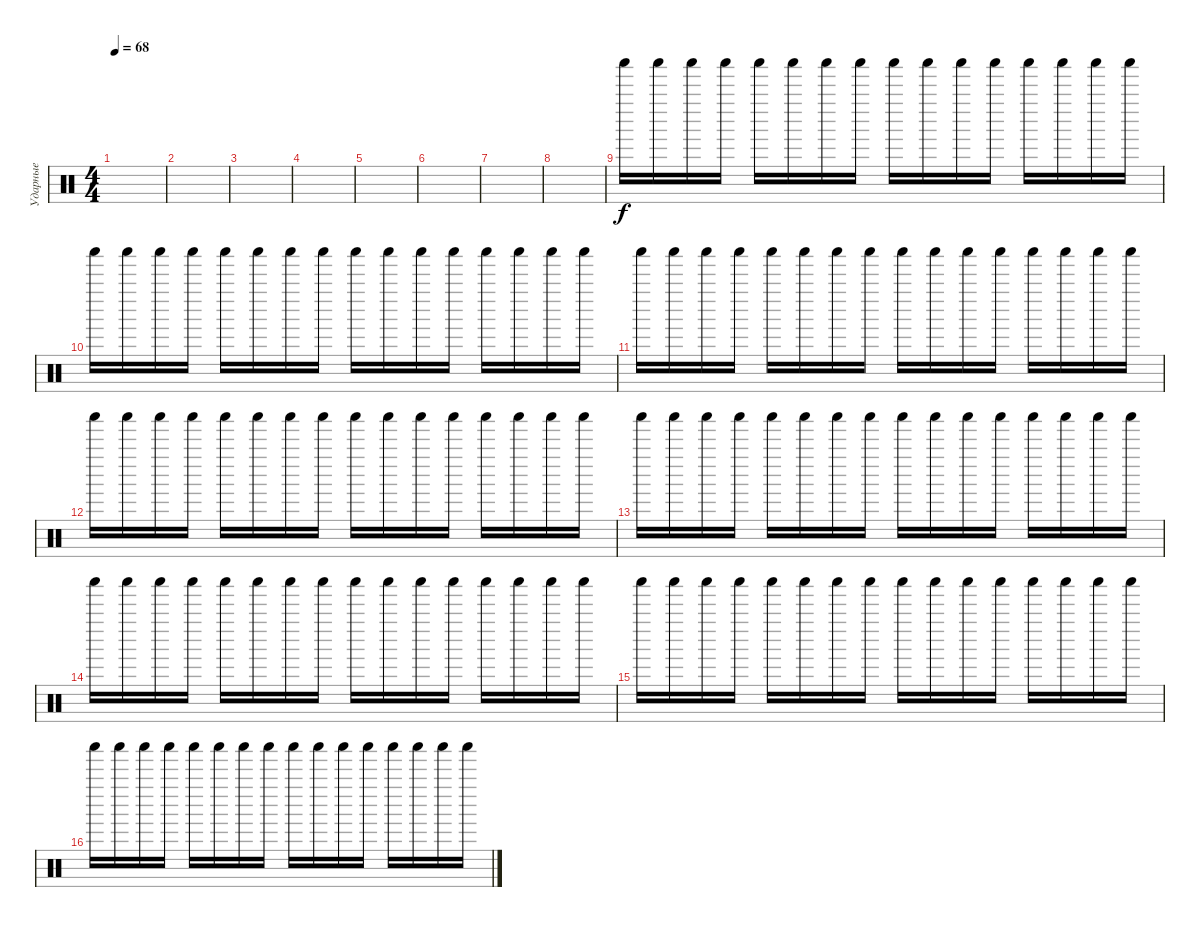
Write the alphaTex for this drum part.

\track ("Ударные" "Ударные") {instrument percussion}
\staff {score}
\articulation defaults
\ts (4 4)
\tempo 68
\clef neutral
\ks c
|
|
|
|
|
|
|
|
"Shaker (hit)".16 "Shaker (hit)".16 "Shaker (hit)".16 "Shaker (hit)".16 "Shaker (hit)".16 "Shaker (hit)".16 "Shaker (hit)".16 "Shaker (hit)".16 "Shaker (hit)".16 "Shaker (hit)".16 "Shaker (hit)".16 "Shaker (hit)".16 "Shaker (hit)".16 "Shaker (hit)".16 "Shaker (hit)".16 "Shaker (hit)".16 |
"Shaker (hit)".16 "Shaker (hit)".16 "Shaker (hit)".16 "Shaker (hit)".16 "Shaker (hit)".16 "Shaker (hit)".16 "Shaker (hit)".16 "Shaker (hit)".16 "Shaker (hit)".16 "Shaker (hit)".16 "Shaker (hit)".16 "Shaker (hit)".16 "Shaker (hit)".16 "Shaker (hit)".16 "Shaker (hit)".16 "Shaker (hit)".16 |
"Shaker (hit)".16 "Shaker (hit)".16 "Shaker (hit)".16 "Shaker (hit)".16 "Shaker (hit)".16 "Shaker (hit)".16 "Shaker (hit)".16 "Shaker (hit)".16 "Shaker (hit)".16 "Shaker (hit)".16 "Shaker (hit)".16 "Shaker (hit)".16 "Shaker (hit)".16 "Shaker (hit)".16 "Shaker (hit)".16 "Shaker (hit)".16 |
"Shaker (hit)".16 "Shaker (hit)".16 "Shaker (hit)".16 "Shaker (hit)".16 "Shaker (hit)".16 "Shaker (hit)".16 "Shaker (hit)".16 "Shaker (hit)".16 "Shaker (hit)".16 "Shaker (hit)".16 "Shaker (hit)".16 "Shaker (hit)".16 "Shaker (hit)".16 "Shaker (hit)".16 "Shaker (hit)".16 "Shaker (hit)".16 |
"Shaker (hit)".16 "Shaker (hit)".16 "Shaker (hit)".16 "Shaker (hit)".16 "Shaker (hit)".16 "Shaker (hit)".16 "Shaker (hit)".16 "Shaker (hit)".16 "Shaker (hit)".16 "Shaker (hit)".16 "Shaker (hit)".16 "Shaker (hit)".16 "Shaker (hit)".16 "Shaker (hit)".16 "Shaker (hit)".16 "Shaker (hit)".16 |
"Shaker (hit)".16 "Shaker (hit)".16 "Shaker (hit)".16 "Shaker (hit)".16 "Shaker (hit)".16 "Shaker (hit)".16 "Shaker (hit)".16 "Shaker (hit)".16 "Shaker (hit)".16 "Shaker (hit)".16 "Shaker (hit)".16 "Shaker (hit)".16 "Shaker (hit)".16 "Shaker (hit)".16 "Shaker (hit)".16 "Shaker (hit)".16 |
"Shaker (hit)".16 "Shaker (hit)".16 "Shaker (hit)".16 "Shaker (hit)".16 "Shaker (hit)".16 "Shaker (hit)".16 "Shaker (hit)".16 "Shaker (hit)".16 "Shaker (hit)".16 "Shaker (hit)".16 "Shaker (hit)".16 "Shaker (hit)".16 "Shaker (hit)".16 "Shaker (hit)".16 "Shaker (hit)".16 "Shaker (hit)".16 |
"Shaker (hit)".16 "Shaker (hit)".16 "Shaker (hit)".16 "Shaker (hit)".16 "Shaker (hit)".16 "Shaker (hit)".16 "Shaker (hit)".16 "Shaker (hit)".16 "Shaker (hit)".16 "Shaker (hit)".16 "Shaker (hit)".16 "Shaker (hit)".16 "Shaker (hit)".16 "Shaker (hit)".16 "Shaker (hit)".16 "Shaker (hit)".16
